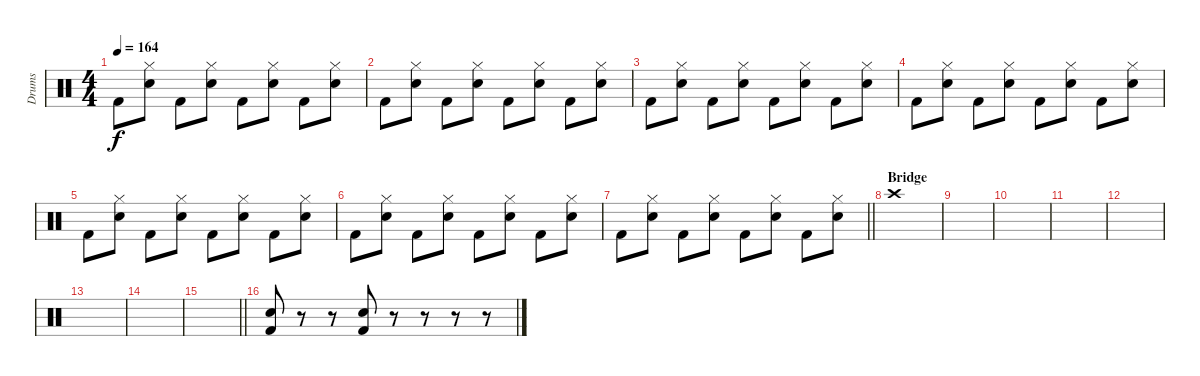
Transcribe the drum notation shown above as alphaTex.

\track ("Drums" "Drums") {instrument percussion}
\staff {score}
\articulation defaults
\ts (4 4)
\tempo 164
\clef neutral
\ks c "Kick (hit) 2".8{dy f}
("Hi-Hat (closed)" "Electric Snare (hit)").8 "Kick (hit) 2".8 ("Hi-Hat (closed)" "Electric Snare (hit)").8 "Kick (hit) 2".8 ("Hi-Hat (closed)" "Electric Snare (hit)").8 "Kick (hit) 2".8 ("Hi-Hat (closed)" "Electric Snare (hit)").8 |
"Kick (hit) 2".8 ("Hi-Hat (closed)" "Electric Snare (hit)").8 "Kick (hit) 2".8 ("Hi-Hat (closed)" "Electric Snare (hit)").8 "Kick (hit) 2".8 ("Hi-Hat (closed)" "Electric Snare (hit)").8 "Kick (hit) 2".8 ("Hi-Hat (closed)" "Electric Snare (hit)").8 |
"Kick (hit) 2".8 ("Hi-Hat (closed)" "Electric Snare (hit)").8 "Kick (hit) 2".8 ("Hi-Hat (closed)" "Electric Snare (hit)").8 "Kick (hit) 2".8 ("Hi-Hat (closed)" "Electric Snare (hit)").8 "Kick (hit) 2".8 ("Hi-Hat (closed)" "Electric Snare (hit)").8 |
"Kick (hit) 2".8 ("Hi-Hat (closed)" "Electric Snare (hit)").8 "Kick (hit) 2".8 ("Hi-Hat (closed)" "Electric Snare (hit)").8 "Kick (hit) 2".8 ("Hi-Hat (closed)" "Electric Snare (hit)").8 "Kick (hit) 2".8 ("Hi-Hat (closed)" "Electric Snare (hit)").8 |
"Kick (hit) 2".8 ("Hi-Hat (closed)" "Electric Snare (hit)").8 "Kick (hit) 2".8 ("Hi-Hat (closed)" "Electric Snare (hit)").8 "Kick (hit) 2".8 ("Hi-Hat (closed)" "Electric Snare (hit)").8 "Kick (hit) 2".8 ("Hi-Hat (closed)" "Electric Snare (hit)").8 |
"Kick (hit) 2".8 ("Hi-Hat (closed)" "Electric Snare (hit)").8 "Kick (hit) 2".8 ("Hi-Hat (closed)" "Electric Snare (hit)").8 "Kick (hit) 2".8 ("Hi-Hat (closed)" "Electric Snare (hit)").8 "Kick (hit) 2".8 ("Hi-Hat (closed)" "Electric Snare (hit)").8 |
\barLineRight lightlight "Kick (hit) 2".8
("Hi-Hat (closed)" "Electric Snare (hit)").8 "Kick (hit) 2".8 ("Hi-Hat (closed)" "Electric Snare (hit)").8 "Kick (hit) 2".8 ("Hi-Hat (closed)" "Electric Snare (hit)").8 "Kick (hit) 2".8 ("Hi-Hat (closed)" "Electric Snare (hit)").8 |
\section ("" "Bridge")
"Crash high (hit)".1 |
|
|
|
|
|
|
\barLineRight lightlight
|
\section ("" "")
("Electric Snare (hit)" "Kick (hit) 2").8 r.8 r.8 ("Electric Snare (hit)" "Kick (hit) 2").8 r.8 r.8 r.8 r.8
